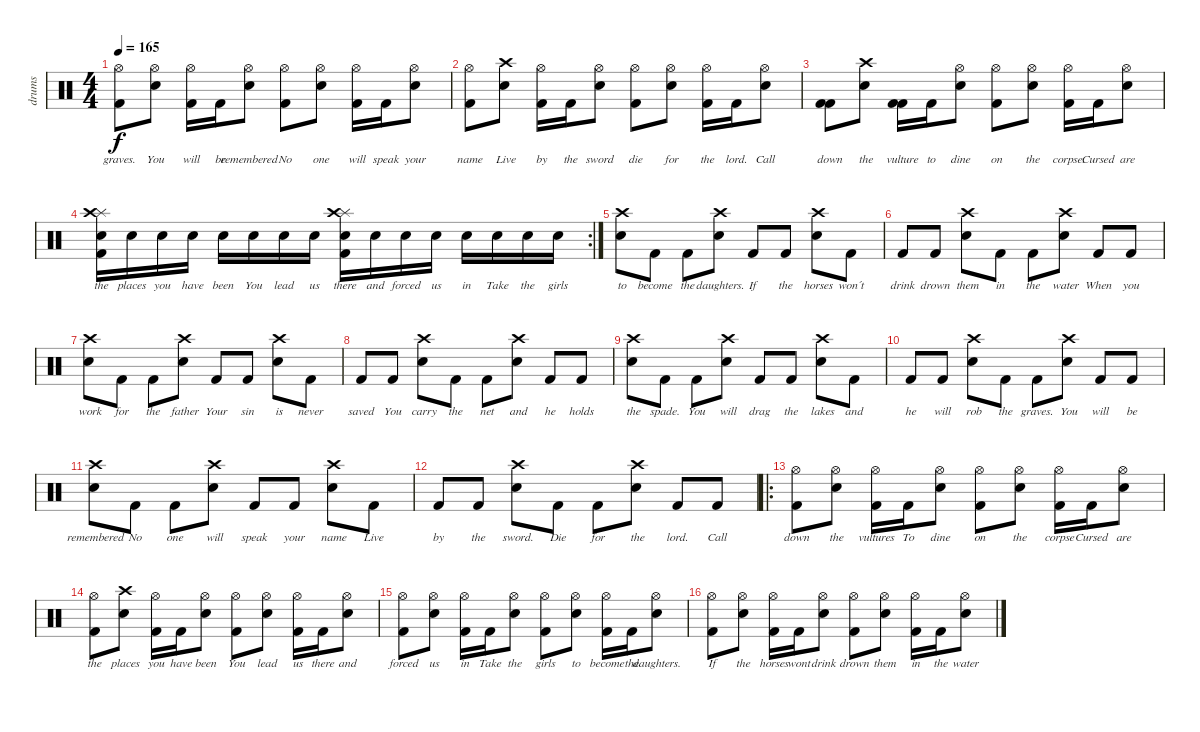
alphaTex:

\track ("drums" "drums") {instrument percussion}
\staff {score}
\articulation defaults
\ts (4 4)
\tempo 165
\clef neutral
\ks c
("Hi-Hat (open)" "Kick (hit) 2").8{lyrics (0 "graves.") lyrics (1 "") lyrics (2 "") lyrics (3 "") lyrics (4 "") dy f} ("Electric Snare (hit)" "Hi-Hat (open)").8{lyrics (0 "You") lyrics (1 "") lyrics (2 "") lyrics (3 "") lyrics (4 "")} ("Hi-Hat (open)" "Kick (hit) 2").16{lyrics (0 "will") lyrics (1 "") lyrics (2 "") lyrics (3 "") lyrics (4 "")} "Kick (hit) 2".16{lyrics (0 "be") lyrics (1 "") lyrics (2 "") lyrics (3 "") lyrics (4 "")} ("Electric Snare (hit)" "Hi-Hat (open)").8{lyrics (0 "remembered") lyrics (1 "") lyrics (2 "") lyrics (3 "") lyrics (4 "")} ("Hi-Hat (open)" "Kick (hit) 2").8{lyrics (0 "No") lyrics (1 "") lyrics (2 "") lyrics (3 "") lyrics (4 "")} ("Electric Snare (hit)" "Hi-Hat (open)").8{lyrics (0 "one") lyrics (1 "") lyrics (2 "") lyrics (3 "") lyrics (4 "")} ("Hi-Hat (open)" "Kick (hit) 2").16{lyrics (0 "will") lyrics (1 "") lyrics (2 "") lyrics (3 "") lyrics (4 "")} "Kick (hit) 2".16{lyrics (0 "speak") lyrics (1 "") lyrics (2 "") lyrics (3 "") lyrics (4 "")} ("Electric Snare (hit)" "Hi-Hat (open)").8{lyrics (0 "your") lyrics (1 "") lyrics (2 "") lyrics (3 "") lyrics (4 "")} |
("Hi-Hat (open)" "Kick (hit) 2").8{lyrics (0 "name") lyrics (1 "") lyrics (2 "") lyrics (3 "") lyrics (4 "")} ("Electric Snare (hit)" "Crash high (hit)").8{lyrics (0 "Live") lyrics (1 "") lyrics (2 "") lyrics (3 "") lyrics (4 "")} ("Hi-Hat (open)" "Kick (hit) 2").16{lyrics (0 "by") lyrics (1 "") lyrics (2 "") lyrics (3 "") lyrics (4 "")} "Kick (hit) 2".16{lyrics (0 "the") lyrics (1 "") lyrics (2 "") lyrics (3 "") lyrics (4 "")} ("Electric Snare (hit)" "Hi-Hat (open)").8{lyrics (0 "sword") lyrics (1 "") lyrics (2 "") lyrics (3 "") lyrics (4 "")} ("Hi-Hat (open)" "Kick (hit) 2").8{lyrics (0 "die") lyrics (1 "") lyrics (2 "") lyrics (3 "") lyrics (4 "")} ("Electric Snare (hit)" "Hi-Hat (open)").8{lyrics (0 "for") lyrics (1 "") lyrics (2 "") lyrics (3 "") lyrics (4 "")} ("Hi-Hat (open)" "Kick (hit) 2").16{lyrics (0 "the") lyrics (1 "") lyrics (2 "") lyrics (3 "") lyrics (4 "")} "Kick (hit) 2".16{lyrics (0 "lord.") lyrics (1 "") lyrics (2 "") lyrics (3 "") lyrics (4 "")} ("Electric Snare (hit)" "Hi-Hat (open)").8{lyrics (0 "Call") lyrics (1 "") lyrics (2 "") lyrics (3 "") lyrics (4 "")} |
("Kick (hit) 2" "Kick (hit) 2").8{lyrics (0 "down") lyrics (1 "") lyrics (2 "") lyrics (3 "") lyrics (4 "")} ("Electric Snare (hit)" "Crash high (hit)").8{lyrics (0 "the") lyrics (1 "") lyrics (2 "") lyrics (3 "") lyrics (4 "")} ("Kick (hit) 2" "Kick (hit) 2").16{lyrics (0 "vulture") lyrics (1 "") lyrics (2 "") lyrics (3 "") lyrics (4 "")} "Kick (hit) 2".16{lyrics (0 "to") lyrics (1 "") lyrics (2 "") lyrics (3 "") lyrics (4 "")} ("Electric Snare (hit)" "Hi-Hat (open)").8{lyrics (0 "dine") lyrics (1 "") lyrics (2 "") lyrics (3 "") lyrics (4 "")} ("Hi-Hat (open)" "Kick (hit) 2").8{lyrics (0 "on") lyrics (1 "") lyrics (2 "") lyrics (3 "") lyrics (4 "")} ("Electric Snare (hit)" "Hi-Hat (open)").8{lyrics (0 "the") lyrics (1 "") lyrics (2 "") lyrics (3 "") lyrics (4 "")} ("Hi-Hat (open)" "Kick (hit) 2").16{lyrics (0 "corpse.") lyrics (1 "") lyrics (2 "") lyrics (3 "") lyrics (4 "")} "Kick (hit) 2".16{lyrics (0 "Cursed") lyrics (1 "") lyrics (2 "") lyrics (3 "") lyrics (4 "")} ("Electric Snare (hit)" "Hi-Hat (open)").8{lyrics (0 "are") lyrics (1 "") lyrics (2 "") lyrics (3 "") lyrics (4 "")} |
\rc 2
("Splash (hit)" "Crash high (hit)" "Electric Snare (hit)" "Kick (hit) 2").16{lyrics (0 "the") lyrics (1 "") lyrics (2 "") lyrics (3 "") lyrics (4 "")} "Electric Snare (hit)".16{lyrics (0 "places") lyrics (1 "") lyrics (2 "") lyrics (3 "") lyrics (4 "")} "Electric Snare (hit)".16{lyrics (0 "you") lyrics (1 "") lyrics (2 "") lyrics (3 "") lyrics (4 "")} "Electric Snare (hit)".16{lyrics (0 "have") lyrics (1 "") lyrics (2 "") lyrics (3 "") lyrics (4 "")} "Electric Snare (hit)".16{lyrics (0 "been") lyrics (1 "") lyrics (2 "") lyrics (3 "") lyrics (4 "")} "Electric Snare (hit)".16{lyrics (0 "You") lyrics (1 "") lyrics (2 "") lyrics (3 "") lyrics (4 "")} "Electric Snare (hit)".16{lyrics (0 "lead") lyrics (1 "") lyrics (2 "") lyrics (3 "") lyrics (4 "")} "Electric Snare (hit)".16{lyrics (0 "us") lyrics (1 "") lyrics (2 "") lyrics (3 "") lyrics (4 "")} ("Splash (hit)" "Crash high (hit)" "Kick (hit) 2" "Electric Snare (hit)").16{lyrics (0 "there") lyrics (1 "") lyrics (2 "") lyrics (3 "") lyrics (4 "")} "Electric Snare (hit)".16{lyrics (0 "and") lyrics (1 "") lyrics (2 "") lyrics (3 "") lyrics (4 "")} "Electric Snare (hit)".16{lyrics (0 "forced") lyrics (1 "") lyrics (2 "") lyrics (3 "") lyrics (4 "")} "Electric Snare (hit)".16{lyrics (0 "us") lyrics (1 "") lyrics (2 "") lyrics (3 "") lyrics (4 "")} "Electric Snare (hit)".16{lyrics (0 "in") lyrics (1 "") lyrics (2 "") lyrics (3 "") lyrics (4 "")} "Electric Snare (hit)".16{lyrics (0 "Take") lyrics (1 "") lyrics (2 "") lyrics (3 "") lyrics (4 "")} "Electric Snare (hit)".16{lyrics (0 "the") lyrics (1 "") lyrics (2 "") lyrics (3 "") lyrics (4 "")} "Electric Snare (hit)".16{lyrics (0 "girls") lyrics (1 "") lyrics (2 "") lyrics (3 "") lyrics (4 "")} |
("Electric Snare (hit)" "Crash high (hit)").8{lyrics (0 "to") lyrics (1 "") lyrics (2 "") lyrics (3 "") lyrics (4 "")} "Kick (hit) 2".8{lyrics (0 "become") lyrics (1 "") lyrics (2 "") lyrics (3 "") lyrics (4 "")} "Kick (hit) 2".8{lyrics (0 "the") lyrics (1 "") lyrics (2 "") lyrics (3 "") lyrics (4 "")} ("Electric Snare (hit)" "Crash high (hit)").8{lyrics (0 "daughters.") lyrics (1 "") lyrics (2 "") lyrics (3 "") lyrics (4 "")} "Kick (hit) 2".8{lyrics (0 "If") lyrics (1 "") lyrics (2 "") lyrics (3 "") lyrics (4 "")} "Kick (hit) 2".8{lyrics (0 "the") lyrics (1 "") lyrics (2 "") lyrics (3 "") lyrics (4 "")} ("Electric Snare (hit)" "Crash high (hit)").8{lyrics (0 "horses") lyrics (1 "") lyrics (2 "") lyrics (3 "") lyrics (4 "")} "Kick (hit) 2".8{lyrics (0 "won´t") lyrics (1 "") lyrics (2 "") lyrics (3 "") lyrics (4 "")} |
"Kick (hit) 2".8{lyrics (0 "drink") lyrics (1 "") lyrics (2 "") lyrics (3 "") lyrics (4 "")} "Kick (hit) 2".8{lyrics (0 "drown") lyrics (1 "") lyrics (2 "") lyrics (3 "") lyrics (4 "")} ("Electric Snare (hit)" "Crash high (hit)").8{lyrics (0 "them") lyrics (1 "") lyrics (2 "") lyrics (3 "") lyrics (4 "")} "Kick (hit) 2".8{lyrics (0 "in") lyrics (1 "") lyrics (2 "") lyrics (3 "") lyrics (4 "")} "Kick (hit) 2".8{lyrics (0 "the") lyrics (1 "") lyrics (2 "") lyrics (3 "") lyrics (4 "")} ("Electric Snare (hit)" "Crash high (hit)").8{lyrics (0 "water") lyrics (1 "") lyrics (2 "") lyrics (3 "") lyrics (4 "")} "Kick (hit) 2".8{lyrics (0 "When") lyrics (1 "") lyrics (2 "") lyrics (3 "") lyrics (4 "")} "Kick (hit) 2".8{lyrics (0 "you") lyrics (1 "") lyrics (2 "") lyrics (3 "") lyrics (4 "")} |
("Electric Snare (hit)" "Crash high (hit)").8{lyrics (0 "work") lyrics (1 "") lyrics (2 "") lyrics (3 "") lyrics (4 "")} "Kick (hit) 2".8{lyrics (0 "for") lyrics (1 "") lyrics (2 "") lyrics (3 "") lyrics (4 "")} "Kick (hit) 2".8{lyrics (0 "the") lyrics (1 "") lyrics (2 "") lyrics (3 "") lyrics (4 "")} ("Electric Snare (hit)" "Crash high (hit)").8{lyrics (0 "father") lyrics (1 "") lyrics (2 "") lyrics (3 "") lyrics (4 "")} "Kick (hit) 2".8{lyrics (0 "Your") lyrics (1 "") lyrics (2 "") lyrics (3 "") lyrics (4 "")} "Kick (hit) 2".8{lyrics (0 "sin") lyrics (1 "") lyrics (2 "") lyrics (3 "") lyrics (4 "")} ("Electric Snare (hit)" "Crash high (hit)").8{lyrics (0 "is") lyrics (1 "") lyrics (2 "") lyrics (3 "") lyrics (4 "")} "Kick (hit) 2".8{lyrics (0 "never") lyrics (1 "") lyrics (2 "") lyrics (3 "") lyrics (4 "")} |
"Kick (hit) 2".8{lyrics (0 "saved") lyrics (1 "") lyrics (2 "") lyrics (3 "") lyrics (4 "")} "Kick (hit) 2".8{lyrics (0 "You") lyrics (1 "") lyrics (2 "") lyrics (3 "") lyrics (4 "")} ("Electric Snare (hit)" "Crash high (hit)").8{lyrics (0 "carry") lyrics (1 "") lyrics (2 "") lyrics (3 "") lyrics (4 "")} "Kick (hit) 2".8{lyrics (0 "the") lyrics (1 "") lyrics (2 "") lyrics (3 "") lyrics (4 "")} "Kick (hit) 2".8{lyrics (0 "net") lyrics (1 "") lyrics (2 "") lyrics (3 "") lyrics (4 "")} ("Electric Snare (hit)" "Crash high (hit)").8{lyrics (0 "and") lyrics (1 "") lyrics (2 "") lyrics (3 "") lyrics (4 "")} "Kick (hit) 2".8{lyrics (0 "he") lyrics (1 "") lyrics (2 "") lyrics (3 "") lyrics (4 "")} "Kick (hit) 2".8{lyrics (0 "holds") lyrics (1 "") lyrics (2 "") lyrics (3 "") lyrics (4 "")} |
("Electric Snare (hit)" "Crash high (hit)").8{lyrics (0 "the") lyrics (1 "") lyrics (2 "") lyrics (3 "") lyrics (4 "")} "Kick (hit) 2".8{lyrics (0 "spade.") lyrics (1 "") lyrics (2 "") lyrics (3 "") lyrics (4 "")} "Kick (hit) 2".8{lyrics (0 "You") lyrics (1 "") lyrics (2 "") lyrics (3 "") lyrics (4 "")} ("Electric Snare (hit)" "Crash high (hit)").8{lyrics (0 "will") lyrics (1 "") lyrics (2 "") lyrics (3 "") lyrics (4 "")} "Kick (hit) 2".8{lyrics (0 "drag") lyrics (1 "") lyrics (2 "") lyrics (3 "") lyrics (4 "")} "Kick (hit) 2".8{lyrics (0 "the") lyrics (1 "") lyrics (2 "") lyrics (3 "") lyrics (4 "")} ("Electric Snare (hit)" "Crash high (hit)").8{lyrics (0 "lakes") lyrics (1 "") lyrics (2 "") lyrics (3 "") lyrics (4 "")} "Kick (hit) 2".8{lyrics (0 "and") lyrics (1 "") lyrics (2 "") lyrics (3 "") lyrics (4 "")} |
"Kick (hit) 2".8{lyrics (0 "he") lyrics (1 "") lyrics (2 "") lyrics (3 "") lyrics (4 "")} "Kick (hit) 2".8{lyrics (0 "will") lyrics (1 "") lyrics (2 "") lyrics (3 "") lyrics (4 "")} ("Electric Snare (hit)" "Crash high (hit)").8{lyrics (0 "rob") lyrics (1 "") lyrics (2 "") lyrics (3 "") lyrics (4 "")} "Kick (hit) 2".8{lyrics (0 "the") lyrics (1 "") lyrics (2 "") lyrics (3 "") lyrics (4 "")} "Kick (hit) 2".8{lyrics (0 "graves.") lyrics (1 "") lyrics (2 "") lyrics (3 "") lyrics (4 "")} ("Electric Snare (hit)" "Crash high (hit)").8{lyrics (0 "You") lyrics (1 "") lyrics (2 "") lyrics (3 "") lyrics (4 "")} "Kick (hit) 2".8{lyrics (0 "will") lyrics (1 "") lyrics (2 "") lyrics (3 "") lyrics (4 "")} "Kick (hit) 2".8{lyrics (0 "be") lyrics (1 "") lyrics (2 "") lyrics (3 "") lyrics (4 "")} |
("Electric Snare (hit)" "Crash high (hit)").8{lyrics (0 "remembered") lyrics (1 "") lyrics (2 "") lyrics (3 "") lyrics (4 "")} "Kick (hit) 2".8{lyrics (0 "No") lyrics (1 "") lyrics (2 "") lyrics (3 "") lyrics (4 "")} "Kick (hit) 2".8{lyrics (0 "one") lyrics (1 "") lyrics (2 "") lyrics (3 "") lyrics (4 "")} ("Electric Snare (hit)" "Crash high (hit)").8{lyrics (0 "will") lyrics (1 "") lyrics (2 "") lyrics (3 "") lyrics (4 "")} "Kick (hit) 2".8{lyrics (0 "speak") lyrics (1 "") lyrics (2 "") lyrics (3 "") lyrics (4 "")} "Kick (hit) 2".8{lyrics (0 "your") lyrics (1 "") lyrics (2 "") lyrics (3 "") lyrics (4 "")} ("Electric Snare (hit)" "Crash high (hit)").8{lyrics (0 "name") lyrics (1 "") lyrics (2 "") lyrics (3 "") lyrics (4 "")} "Kick (hit) 2".8{lyrics (0 "Live") lyrics (1 "") lyrics (2 "") lyrics (3 "") lyrics (4 "")} |
"Kick (hit) 2".8{lyrics (0 "by") lyrics (1 "") lyrics (2 "") lyrics (3 "") lyrics (4 "")} "Kick (hit) 2".8{lyrics (0 "the") lyrics (1 "") lyrics (2 "") lyrics (3 "") lyrics (4 "")} ("Electric Snare (hit)" "Crash high (hit)").8{lyrics (0 "sword.") lyrics (1 "") lyrics (2 "") lyrics (3 "") lyrics (4 "")} "Kick (hit) 2".8{lyrics (0 "Die") lyrics (1 "") lyrics (2 "") lyrics (3 "") lyrics (4 "")} "Kick (hit) 2".8{lyrics (0 "for") lyrics (1 "") lyrics (2 "") lyrics (3 "") lyrics (4 "")} ("Electric Snare (hit)" "Crash high (hit)").8{lyrics (0 "the") lyrics (1 "") lyrics (2 "") lyrics (3 "") lyrics (4 "")} "Kick (hit) 2".8{lyrics (0 "lord.") lyrics (1 "") lyrics (2 "") lyrics (3 "") lyrics (4 "")} "Kick (hit) 2".8{lyrics (0 "Call") lyrics (1 "") lyrics (2 "") lyrics (3 "") lyrics (4 "")} |
\ro
("Hi-Hat (open)" "Kick (hit) 2").8{lyrics (0 "down") lyrics (1 "") lyrics (2 "") lyrics (3 "") lyrics (4 "")} ("Electric Snare (hit)" "Hi-Hat (open)").8{lyrics (0 "the") lyrics (1 "") lyrics (2 "") lyrics (3 "") lyrics (4 "")} ("Hi-Hat (open)" "Kick (hit) 2").16{lyrics (0 "vultures") lyrics (1 "") lyrics (2 "") lyrics (3 "") lyrics (4 "")} "Kick (hit) 2".16{lyrics (0 "To") lyrics (1 "") lyrics (2 "") lyrics (3 "") lyrics (4 "")} ("Electric Snare (hit)" "Hi-Hat (open)").8{lyrics (0 "dine") lyrics (1 "") lyrics (2 "") lyrics (3 "") lyrics (4 "")} ("Hi-Hat (open)" "Kick (hit) 2").8{lyrics (0 "on") lyrics (1 "") lyrics (2 "") lyrics (3 "") lyrics (4 "")} ("Electric Snare (hit)" "Hi-Hat (open)").8{lyrics (0 "the") lyrics (1 "") lyrics (2 "") lyrics (3 "") lyrics (4 "")} ("Hi-Hat (open)" "Kick (hit) 2").16{lyrics (0 "corpse") lyrics (1 "") lyrics (2 "") lyrics (3 "") lyrics (4 "")} "Kick (hit) 2".16{lyrics (0 "Cursed") lyrics (1 "") lyrics (2 "") lyrics (3 "") lyrics (4 "")} ("Electric Snare (hit)" "Hi-Hat (open)").8{lyrics (0 "are") lyrics (1 "") lyrics (2 "") lyrics (3 "") lyrics (4 "")} |
("Hi-Hat (open)" "Kick (hit) 2").8{lyrics (0 "the") lyrics (1 "") lyrics (2 "") lyrics (3 "") lyrics (4 "")} ("Electric Snare (hit)" "Crash high (hit)").8{lyrics (0 "places") lyrics (1 "") lyrics (2 "") lyrics (3 "") lyrics (4 "")} ("Hi-Hat (open)" "Kick (hit) 2").16{lyrics (0 "you") lyrics (1 "") lyrics (2 "") lyrics (3 "") lyrics (4 "")} "Kick (hit) 2".16{lyrics (0 "have") lyrics (1 "") lyrics (2 "") lyrics (3 "") lyrics (4 "")} ("Electric Snare (hit)" "Hi-Hat (open)").8{lyrics (0 "been") lyrics (1 "") lyrics (2 "") lyrics (3 "") lyrics (4 "")} ("Hi-Hat (open)" "Kick (hit) 2").8{lyrics (0 "You") lyrics (1 "") lyrics (2 "") lyrics (3 "") lyrics (4 "")} ("Electric Snare (hit)" "Hi-Hat (open)").8{lyrics (0 "lead") lyrics (1 "") lyrics (2 "") lyrics (3 "") lyrics (4 "")} ("Hi-Hat (open)" "Kick (hit) 2").16{lyrics (0 "us") lyrics (1 "") lyrics (2 "") lyrics (3 "") lyrics (4 "")} "Kick (hit) 2".16{lyrics (0 "there") lyrics (1 "") lyrics (2 "") lyrics (3 "") lyrics (4 "")} ("Electric Snare (hit)" "Hi-Hat (open)").8{lyrics (0 "and") lyrics (1 "") lyrics (2 "") lyrics (3 "") lyrics (4 "")} |
("Hi-Hat (open)" "Kick (hit) 2").8{lyrics (0 "forced") lyrics (1 "") lyrics (2 "") lyrics (3 "") lyrics (4 "")} ("Electric Snare (hit)" "Hi-Hat (open)").8{lyrics (0 "us") lyrics (1 "") lyrics (2 "") lyrics (3 "") lyrics (4 "")} ("Hi-Hat (open)" "Kick (hit) 2").16{lyrics (0 "in") lyrics (1 "") lyrics (2 "") lyrics (3 "") lyrics (4 "")} "Kick (hit) 2".16{lyrics (0 "Take") lyrics (1 "") lyrics (2 "") lyrics (3 "") lyrics (4 "")} ("Electric Snare (hit)" "Hi-Hat (open)").8{lyrics (0 "the") lyrics (1 "") lyrics (2 "") lyrics (3 "") lyrics (4 "")} ("Hi-Hat (open)" "Kick (hit) 2").8{lyrics (0 "girls") lyrics (1 "") lyrics (2 "") lyrics (3 "") lyrics (4 "")} ("Electric Snare (hit)" "Hi-Hat (open)").8{lyrics (0 "to") lyrics (1 "") lyrics (2 "") lyrics (3 "") lyrics (4 "")} ("Hi-Hat (open)" "Kick (hit) 2").16{lyrics (0 "become") lyrics (1 "") lyrics (2 "") lyrics (3 "") lyrics (4 "")} "Kick (hit) 2".16{lyrics (0 "the") lyrics (1 "") lyrics (2 "") lyrics (3 "") lyrics (4 "")} ("Electric Snare (hit)" "Hi-Hat (open)").8{lyrics (0 "daughters.") lyrics (1 "") lyrics (2 "") lyrics (3 "") lyrics (4 "")} |
("Hi-Hat (open)" "Kick (hit) 2").8{lyrics (0 "If") lyrics (1 "") lyrics (2 "") lyrics (3 "") lyrics (4 "")} ("Electric Snare (hit)" "Hi-Hat (open)").8{lyrics (0 "the") lyrics (1 "") lyrics (2 "") lyrics (3 "") lyrics (4 "")} ("Hi-Hat (open)" "Kick (hit) 2").16{lyrics (0 "horses") lyrics (1 "") lyrics (2 "") lyrics (3 "") lyrics (4 "")} "Kick (hit) 2".16{lyrics (0 "wont") lyrics (1 "") lyrics (2 "") lyrics (3 "") lyrics (4 "")} ("Electric Snare (hit)" "Hi-Hat (open)").8{lyrics (0 "drink") lyrics (1 "") lyrics (2 "") lyrics (3 "") lyrics (4 "")} ("Hi-Hat (open)" "Kick (hit) 2").8{lyrics (0 "drown") lyrics (1 "") lyrics (2 "") lyrics (3 "") lyrics (4 "")} ("Electric Snare (hit)" "Hi-Hat (open)").8{lyrics (0 "them") lyrics (1 "") lyrics (2 "") lyrics (3 "") lyrics (4 "")} ("Hi-Hat (open)" "Kick (hit) 2").16{lyrics (0 "in") lyrics (1 "") lyrics (2 "") lyrics (3 "") lyrics (4 "")} "Kick (hit) 2".16{lyrics (0 "the") lyrics (1 "") lyrics (2 "") lyrics (3 "") lyrics (4 "")} ("Electric Snare (hit)" "Hi-Hat (open)").8{lyrics (0 "water") lyrics (1 "") lyrics (2 "") lyrics (3 "") lyrics (4 "")}
